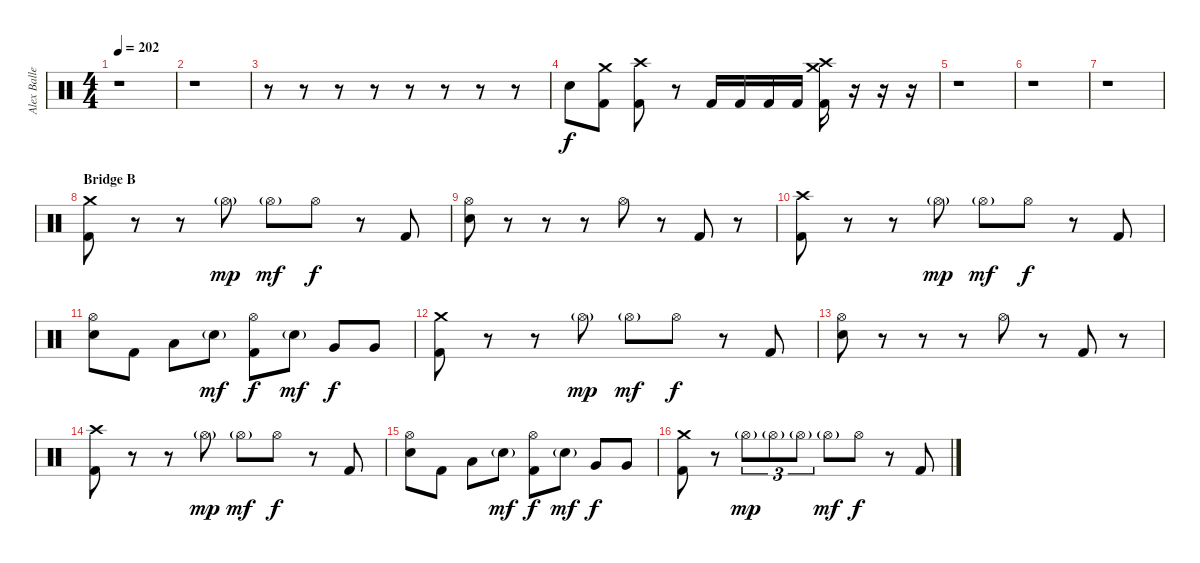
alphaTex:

\track ("Alex Ballew" "Alex Balle") {instrument percussion}
\staff {score}
\articulation defaults
\ts (4 4)
\tempo 202
\clef neutral
\ks c
r.1{dy f} |
r.1 |
r.8 r.8 r.8 r.8 r.8 r.8 r.8 r.8 |
"Electric Snare (hit)".8 ("Crash medium (hit)" "Kick (hit) 2").8 ("Crash high (hit)" "Kick (hit) 2").8 r.8 "Kick (hit) 2".16 "Kick (hit) 2".16 "Kick (hit) 2".16 "Kick (hit) 2".16 ("Crash medium (hit)" "Crash high (hit)" "Kick (hit) 2").16 r.16 r.16 r.16 |
r.1 |
r.1 |
r.1 |
\section ("" "Bridge B")
("Crash medium (hit)" "Kick (hit) 2").8 r.8 r.8 "Hi-Hat (open)"{g}.8{dy mp} "Hi-Hat (open)"{g}.8{dy mf} "Hi-Hat (open)".8{dy f} r.8 "Kick (hit) 2".8 |
("Hi-Hat (open)" "Electric Snare (hit)").8 r.8 r.8 r.8 "Hi-Hat (open)".8 r.8 "Kick (hit) 2".8 r.8 |
("Crash high (hit)" "Kick (hit) 2").8 r.8 r.8 "Hi-Hat (open)"{g}.8{dy mp} "Hi-Hat (open)"{g}.8{dy mf} "Hi-Hat (open)".8{dy f} r.8 "Kick (hit) 2".8 |
("Hi-Hat (open)" "Electric Snare (hit)").8 "Kick (hit) 2".8 "Low Tom (hit)".8 "Snare (hit) 2"{g}.8{dy mf} ("Hi-Hat (open)" "Kick (hit) 2").8{dy f} "Snare (hit) 2"{g}.8{dy mf} "Very Low Tom (hit)".8{dy f} "Very Low Tom (hit)".8 |
("Crash medium (hit)" "Kick (hit) 2").8 r.8 r.8 "Hi-Hat (open)"{g}.8{dy mp} "Hi-Hat (open)"{g}.8{dy mf} "Hi-Hat (open)".8{dy f} r.8 "Kick (hit) 2".8 |
("Hi-Hat (open)" "Electric Snare (hit)").8 r.8 r.8 r.8 "Hi-Hat (open)".8 r.8 "Kick (hit) 2".8 r.8 |
("Crash high (hit)" "Kick (hit) 2").8 r.8 r.8 "Hi-Hat (open)"{g}.8{dy mp} "Hi-Hat (open)"{g}.8{dy mf} "Hi-Hat (open)".8{dy f} r.8 "Kick (hit) 2".8 |
("Hi-Hat (open)" "Electric Snare (hit)").8 "Kick (hit) 2".8 "Low Tom (hit)".8 "Snare (hit) 2"{g}.8{dy mf} ("Hi-Hat (open)" "Kick (hit) 2").8{dy f} "Snare (hit) 2"{g}.8{dy mf} "Very Low Tom (hit)".8{dy f} "Very Low Tom (hit)".8 |
("Crash medium (hit)" "Kick (hit) 2").8 r.8 "Hi-Hat (open)"{g}.8{tu (3 2) dy mp} "Hi-Hat (open)"{g}.8{tu (3 2)} "Hi-Hat (open)"{g}.8{tu (3 2)} "Hi-Hat (open)"{g}.8{dy mf} "Hi-Hat (open)".8{dy f} r.8 "Kick (hit) 2".8
